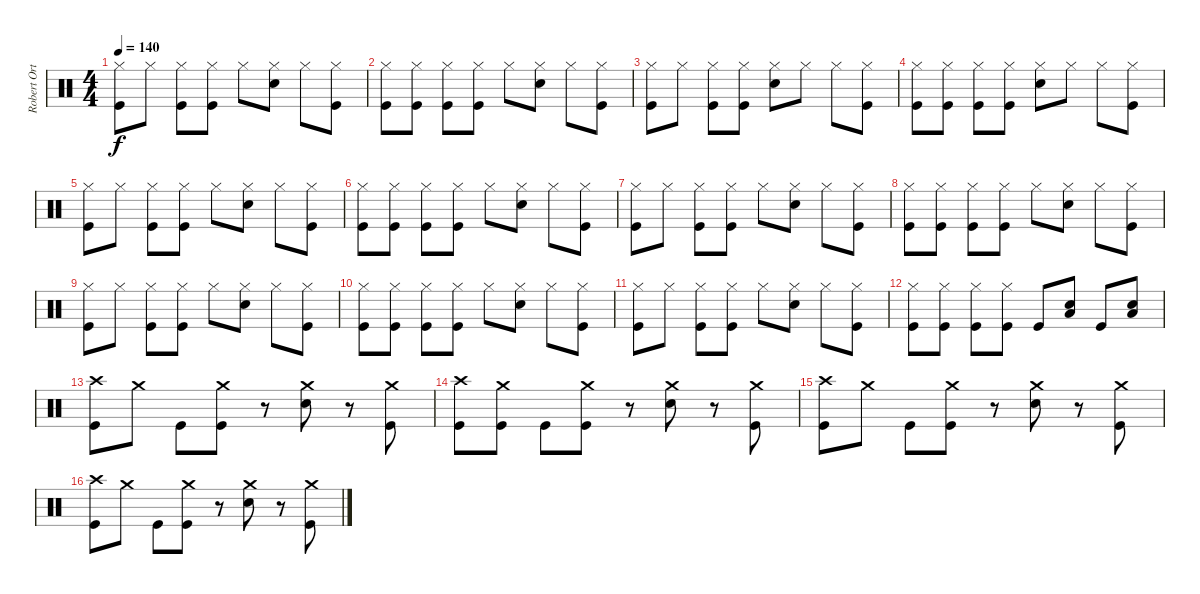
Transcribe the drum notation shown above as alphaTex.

\track ("Robert Ortiz" "Robert Ort") {instrument percussion}
\staff {score}
\articulation defaults
\ts (4 4)
\tempo 140
\clef neutral
\ks c
("Hi-Hat (closed)" "Kick (hit)").8{dy f} "Hi-Hat (closed)".8 ("Hi-Hat (closed)" "Kick (hit)").8 ("Hi-Hat (closed)" "Kick (hit)").8 "Hi-Hat (closed)".8 ("Hi-Hat (closed)" "Snare (hit) 2").8 "Hi-Hat (closed)".8 ("Hi-Hat (closed)" "Kick (hit)").8 |
("Hi-Hat (closed)" "Kick (hit)").8 ("Hi-Hat (closed)" "Kick (hit)").8 ("Hi-Hat (closed)" "Kick (hit)").8 ("Hi-Hat (closed)" "Kick (hit)").8 "Hi-Hat (closed)".8 ("Hi-Hat (closed)" "Snare (hit) 2").8 "Hi-Hat (closed)".8 ("Hi-Hat (closed)" "Kick (hit)").8 |
("Hi-Hat (closed)" "Kick (hit)").8 "Hi-Hat (closed)".8 ("Hi-Hat (closed)" "Kick (hit)").8 ("Hi-Hat (closed)" "Kick (hit)").8 ("Hi-Hat (closed)" "Snare (hit) 2").8 "Hi-Hat (closed)".8 "Hi-Hat (closed)".8 ("Hi-Hat (closed)" "Kick (hit)").8 |
("Hi-Hat (closed)" "Kick (hit)").8 ("Hi-Hat (closed)" "Kick (hit)").8 ("Hi-Hat (closed)" "Kick (hit)").8 ("Hi-Hat (closed)" "Kick (hit)").8 ("Hi-Hat (closed)" "Snare (hit) 2").8 "Hi-Hat (closed)".8 "Hi-Hat (closed)".8 ("Hi-Hat (closed)" "Kick (hit)").8 |
("Hi-Hat (closed)" "Kick (hit)").8 "Hi-Hat (closed)".8 ("Hi-Hat (closed)" "Kick (hit)").8 ("Hi-Hat (closed)" "Kick (hit)").8 "Hi-Hat (closed)".8 ("Hi-Hat (closed)" "Snare (hit) 2").8 "Hi-Hat (closed)".8 ("Hi-Hat (closed)" "Kick (hit)").8 |
("Hi-Hat (closed)" "Kick (hit)").8 ("Hi-Hat (closed)" "Kick (hit)").8 ("Hi-Hat (closed)" "Kick (hit)").8 ("Hi-Hat (closed)" "Kick (hit)").8 "Hi-Hat (closed)".8 ("Hi-Hat (closed)" "Snare (hit) 2").8 "Hi-Hat (closed)".8 ("Hi-Hat (closed)" "Kick (hit)").8 |
("Hi-Hat (closed)" "Kick (hit)").8 "Hi-Hat (closed)".8 ("Hi-Hat (closed)" "Kick (hit)").8 ("Hi-Hat (closed)" "Kick (hit)").8 "Hi-Hat (closed)".8 ("Hi-Hat (closed)" "Snare (hit) 2").8 "Hi-Hat (closed)".8 ("Hi-Hat (closed)" "Kick (hit)").8 |
("Hi-Hat (closed)" "Kick (hit)").8 ("Hi-Hat (closed)" "Kick (hit)").8 ("Hi-Hat (closed)" "Kick (hit)").8 ("Hi-Hat (closed)" "Kick (hit)").8 "Hi-Hat (closed)".8 ("Hi-Hat (closed)" "Snare (hit) 2").8 "Hi-Hat (closed)".8 ("Hi-Hat (closed)" "Kick (hit)").8 |
("Hi-Hat (closed)" "Kick (hit)").8 "Hi-Hat (closed)".8 ("Hi-Hat (closed)" "Kick (hit)").8 ("Hi-Hat (closed)" "Kick (hit)").8 "Hi-Hat (closed)".8 ("Hi-Hat (closed)" "Snare (hit) 2").8 "Hi-Hat (closed)".8 ("Hi-Hat (closed)" "Kick (hit)").8 |
("Hi-Hat (closed)" "Kick (hit)").8 ("Hi-Hat (closed)" "Kick (hit)").8 ("Hi-Hat (closed)" "Kick (hit)").8 ("Hi-Hat (closed)" "Kick (hit)").8 "Hi-Hat (closed)".8 ("Hi-Hat (closed)" "Snare (hit) 2").8 "Hi-Hat (closed)".8 ("Hi-Hat (closed)" "Kick (hit)").8 |
("Hi-Hat (closed)" "Kick (hit)").8 "Hi-Hat (closed)".8 ("Hi-Hat (closed)" "Kick (hit)").8 ("Hi-Hat (closed)" "Kick (hit)").8 "Hi-Hat (closed)".8 ("Hi-Hat (closed)" "Snare (hit) 2").8 "Hi-Hat (closed)".8 ("Hi-Hat (closed)" "Kick (hit)").8 |
("Hi-Hat (closed)" "Kick (hit)").8 ("Hi-Hat (closed)" "Kick (hit)").8 ("Hi-Hat (closed)" "Kick (hit)").8 ("Hi-Hat (closed)" "Kick (hit)").8 "Kick (hit)".8 ("Low Floor Tom (hit)" "Snare (hit) 2").8 "Kick (hit)".8 ("Low Floor Tom (hit)" "Snare (hit) 2").8 |
("Crash high (hit)" "Kick (hit)").8 "Crash medium (hit)".8 "Kick (hit)".8 ("Crash medium (hit)" "Kick (hit)").8 r.8 ("Crash medium (hit)" "Snare (hit) 2").8 r.8 ("Crash medium (hit)" "Kick (hit)").8 |
("Crash high (hit)" "Kick (hit)").8 ("Crash medium (hit)" "Kick (hit)").8 "Kick (hit)".8 ("Crash medium (hit)" "Kick (hit)").8 r.8 ("Crash medium (hit)" "Snare (hit) 2").8 r.8 ("Crash medium (hit)" "Kick (hit)").8 |
("Crash high (hit)" "Kick (hit)").8 "Crash medium (hit)".8 "Kick (hit)".8 ("Crash medium (hit)" "Kick (hit)").8 r.8 ("Crash medium (hit)" "Snare (hit) 2").8 r.8 ("Crash medium (hit)" "Kick (hit)").8 |
("Crash high (hit)" "Kick (hit)").8 "Crash medium (hit)".8 "Kick (hit)".8 ("Crash medium (hit)" "Kick (hit)").8 r.8 ("Crash medium (hit)" "Snare (hit) 2").8 r.8 ("Crash medium (hit)" "Kick (hit)").8
